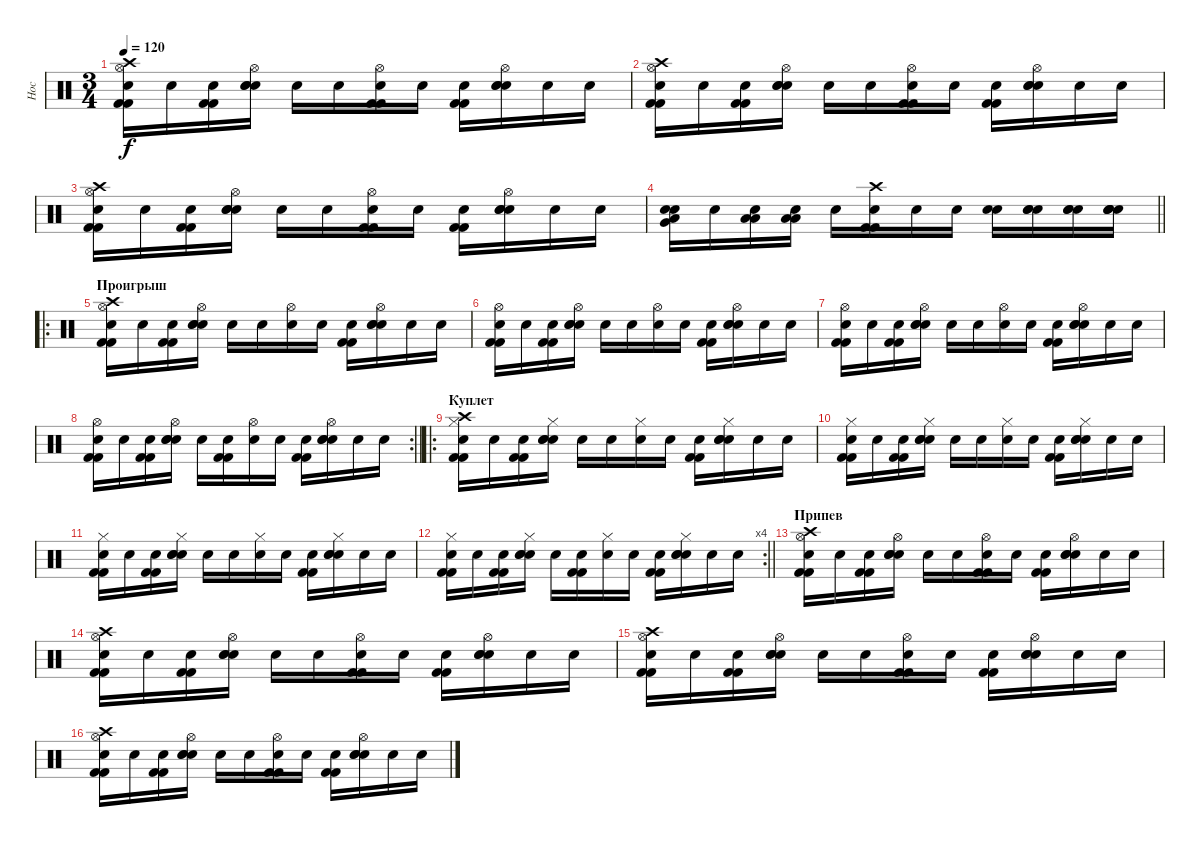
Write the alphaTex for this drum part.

\track ("Нос" "Нос") {instrument percussion}
\staff {score}
\articulation defaults
\ts (3 4)
\tempo 120
\clef neutral
\ks c
("Crash high (hit)" "Hi-Hat (open)" "Kick (hit) 2" "Kick (hit) 2" "Snare (hit)").16{dy f} "Snare (hit)".16 ("Kick (hit) 2" "Kick (hit) 2" "Snare (hit)").16 ("Hi-Hat (open)" "Snare (hit) 2" "Snare (hit) 2" "Snare (hit)").16 "Snare (hit)".16 "Snare (hit)".16 ("Hi-Hat (open)" "Kick (hit) 2" "Kick (hit) 2" "Snare (hit)").16 "Snare (hit)".16 ("Kick (hit) 2" "Kick (hit) 2" "Snare (hit)").16 ("Hi-Hat (open)" "Snare (hit) 2" "Snare (hit) 2" "Snare (hit)").16 "Snare (hit)".16 "Snare (hit)".16 |
("Crash high (hit)" "Hi-Hat (open)" "Kick (hit) 2" "Kick (hit) 2" "Snare (hit)").16 "Snare (hit)".16 ("Kick (hit) 2" "Kick (hit) 2" "Snare (hit)").16 ("Hi-Hat (open)" "Snare (hit) 2" "Snare (hit) 2" "Snare (hit)").16 "Snare (hit)".16 "Snare (hit)".16 ("Hi-Hat (open)" "Kick (hit) 2" "Kick (hit) 2" "Snare (hit)").16 "Snare (hit)".16 ("Kick (hit) 2" "Kick (hit) 2" "Snare (hit)").16 ("Hi-Hat (open)" "Snare (hit) 2" "Snare (hit) 2" "Snare (hit)").16 "Snare (hit)".16 "Snare (hit)".16 |
("Crash high (hit)" "Hi-Hat (open)" "Kick (hit) 2" "Kick (hit) 2" "Snare (hit)").16 "Snare (hit)".16 ("Kick (hit) 2" "Kick (hit) 2" "Snare (hit)").16 ("Hi-Hat (open)" "Snare (hit) 2" "Snare (hit) 2" "Snare (hit)").16 "Snare (hit)".16 "Snare (hit)".16 ("Hi-Hat (open)" "Kick (hit) 2" "Kick (hit) 2" "Snare (hit)").16 "Snare (hit)".16 ("Kick (hit) 2" "Kick (hit) 2" "Snare (hit)").16 ("Hi-Hat (open)" "Snare (hit) 2" "Snare (hit) 2" "Snare (hit)").16 "Snare (hit)".16 "Snare (hit)".16 |
\barLineRight lightlight
("Very Low Tom (hit)" "Snare (hit) 2" "Low Tom (hit)" "Snare (hit)").16 "Snare (hit)".16 ("Low Tom (hit)" "Low Tom (hit)" "Snare (hit)").16 ("Low Floor Tom (hit)" "Low Floor Tom (hit)" "Snare (hit)").16 "Snare (hit)".16 ("Crash high (hit)" "Kick (hit) 2" "Kick (hit) 2" "Snare (hit)").16 "Snare (hit)".16 "Snare (hit)".16 ("Snare (hit) 2" "Snare (hit)").16 ("Snare (hit) 2" "Snare (hit) 2" "Snare (hit)").16 ("Snare (hit) 2" "Snare (hit) 2" "Snare (hit)").16 ("Snare (hit) 2" "Snare (hit) 2" "Snare (hit) 2" "Snare (hit)").16 |
\ro
\section ("" "Проигрыш")
("Crash high (hit)" "Hi-Hat (open)" "Kick (hit) 2" "Kick (hit) 2" "Snare (hit)").16 "Snare (hit)".16 ("Kick (hit) 2" "Kick (hit) 2" "Snare (hit)").16 ("Hi-Hat (open)" "Snare (hit) 2" "Snare (hit) 2" "Snare (hit)").16 "Snare (hit)".16 "Snare (hit)".16 ("Hi-Hat (open)" "Snare (hit)").16 "Snare (hit)".16 ("Kick (hit) 2" "Kick (hit) 2" "Snare (hit)").16 ("Hi-Hat (open)" "Snare (hit) 2" "Snare (hit) 2" "Snare (hit)").16 "Snare (hit)".16 "Snare (hit)".16 |
("Hi-Hat (open)" "Kick (hit) 2" "Kick (hit) 2" "Snare (hit)").16 "Snare (hit)".16 ("Kick (hit) 2" "Kick (hit) 2" "Snare (hit)").16 ("Hi-Hat (open)" "Snare (hit) 2" "Snare (hit) 2" "Snare (hit)").16 "Snare (hit)".16 "Snare (hit)".16 ("Hi-Hat (open)" "Snare (hit)").16 "Snare (hit)".16 ("Kick (hit) 2" "Kick (hit) 2" "Snare (hit)").16 ("Hi-Hat (open)" "Snare (hit) 2" "Snare (hit) 2" "Snare (hit)").16 "Snare (hit)".16 "Snare (hit)".16 |
("Hi-Hat (open)" "Kick (hit) 2" "Kick (hit) 2" "Snare (hit)").16 "Snare (hit)".16 ("Kick (hit) 2" "Kick (hit) 2" "Snare (hit)").16 ("Hi-Hat (open)" "Snare (hit) 2" "Snare (hit) 2" "Snare (hit)").16 "Snare (hit)".16 "Snare (hit)".16 ("Hi-Hat (open)" "Snare (hit)").16 "Snare (hit)".16 ("Kick (hit) 2" "Kick (hit) 2" "Snare (hit)").16 ("Hi-Hat (open)" "Snare (hit) 2" "Snare (hit) 2" "Snare (hit)").16 "Snare (hit)".16 "Snare (hit)".16 |
\rc 2
\barLineRight lightlight
("Hi-Hat (open)" "Kick (hit) 2" "Kick (hit) 2" "Snare (hit)").16 "Snare (hit)".16 ("Kick (hit) 2" "Kick (hit) 2" "Snare (hit)").16 ("Hi-Hat (open)" "Snare (hit) 2" "Snare (hit) 2" "Snare (hit)").16 "Snare (hit)".16 ("Kick (hit) 2" "Kick (hit) 2" "Snare (hit)").16 ("Hi-Hat (open)" "Snare (hit)").16 "Snare (hit)".16 ("Kick (hit) 2" "Kick (hit) 2" "Snare (hit)").16 ("Hi-Hat (open)" "Snare (hit) 2" "Snare (hit) 2" "Snare (hit)").16 "Snare (hit)".16 "Snare (hit)".16 |
\ro
\section ("" "Куплет")
("Crash high (hit)" "Hi-Hat (closed)" "Kick (hit) 2" "Kick (hit) 2" "Snare (hit)").16 "Snare (hit)".16 ("Kick (hit) 2" "Kick (hit) 2" "Snare (hit)").16 ("Hi-Hat (closed)" "Snare (hit) 2" "Snare (hit) 2" "Snare (hit)").16 "Snare (hit)".16 "Snare (hit)".16 ("Hi-Hat (closed)" "Snare (hit)").16 "Snare (hit)".16 ("Kick (hit) 2" "Kick (hit) 2" "Snare (hit)").16 ("Hi-Hat (closed)" "Snare (hit) 2" "Snare (hit) 2" "Snare (hit)").16 "Snare (hit)".16 "Snare (hit)".16 |
("Hi-Hat (closed)" "Kick (hit) 2" "Kick (hit) 2" "Snare (hit)").16 "Snare (hit)".16 ("Kick (hit) 2" "Kick (hit) 2" "Snare (hit)").16 ("Hi-Hat (closed)" "Snare (hit) 2" "Snare (hit) 2" "Snare (hit)").16 "Snare (hit)".16 "Snare (hit)".16 ("Hi-Hat (closed)" "Snare (hit)").16 "Snare (hit)".16 ("Kick (hit) 2" "Kick (hit) 2" "Snare (hit)").16 ("Hi-Hat (closed)" "Snare (hit) 2" "Snare (hit) 2" "Snare (hit)").16 "Snare (hit)".16 "Snare (hit)".16 |
("Hi-Hat (closed)" "Kick (hit) 2" "Kick (hit) 2" "Snare (hit)").16 "Snare (hit)".16 ("Kick (hit) 2" "Kick (hit) 2" "Snare (hit)").16 ("Hi-Hat (closed)" "Snare (hit) 2" "Snare (hit) 2" "Snare (hit)").16 "Snare (hit)".16 "Snare (hit)".16 ("Hi-Hat (closed)" "Snare (hit)").16 "Snare (hit)".16 ("Kick (hit) 2" "Kick (hit) 2" "Snare (hit)").16 ("Hi-Hat (closed)" "Snare (hit) 2" "Snare (hit) 2" "Snare (hit)").16 "Snare (hit)".16 "Snare (hit)".16 |
\rc 4
\barLineRight lightlight
("Hi-Hat (closed)" "Kick (hit) 2" "Kick (hit) 2" "Snare (hit)").16 "Snare (hit)".16 ("Kick (hit) 2" "Kick (hit) 2" "Snare (hit)").16 ("Hi-Hat (closed)" "Snare (hit) 2" "Snare (hit) 2" "Snare (hit)").16 "Snare (hit)".16 ("Kick (hit) 2" "Kick (hit) 2" "Snare (hit)").16 ("Hi-Hat (closed)" "Snare (hit)").16 "Snare (hit)".16 ("Kick (hit) 2" "Kick (hit) 2" "Snare (hit)").16 ("Hi-Hat (closed)" "Snare (hit) 2" "Snare (hit) 2" "Snare (hit)").16 "Snare (hit)".16 "Snare (hit)".16 |
\section ("" "Припев")
("Crash high (hit)" "Hi-Hat (open)" "Kick (hit) 2" "Kick (hit) 2" "Snare (hit)").16 "Snare (hit)".16 ("Kick (hit) 2" "Kick (hit) 2" "Snare (hit)").16 ("Hi-Hat (open)" "Snare (hit) 2" "Snare (hit) 2" "Snare (hit)").16 "Snare (hit)".16 "Snare (hit)".16 ("Hi-Hat (open)" "Kick (hit) 2" "Kick (hit) 2" "Snare (hit)").16 "Snare (hit)".16 ("Kick (hit) 2" "Kick (hit) 2" "Snare (hit)").16 ("Hi-Hat (open)" "Snare (hit) 2" "Snare (hit) 2" "Snare (hit)").16 "Snare (hit)".16 "Snare (hit)".16 |
("Crash high (hit)" "Hi-Hat (open)" "Kick (hit) 2" "Kick (hit) 2" "Snare (hit)").16 "Snare (hit)".16 ("Kick (hit) 2" "Kick (hit) 2" "Snare (hit)").16 ("Hi-Hat (open)" "Snare (hit) 2" "Snare (hit) 2" "Snare (hit)").16 "Snare (hit)".16 "Snare (hit)".16 ("Hi-Hat (open)" "Kick (hit) 2" "Kick (hit) 2" "Snare (hit)").16 "Snare (hit)".16 ("Kick (hit) 2" "Kick (hit) 2" "Snare (hit)").16 ("Hi-Hat (open)" "Snare (hit) 2" "Snare (hit) 2" "Snare (hit)").16 "Snare (hit)".16 "Snare (hit)".16 |
("Crash high (hit)" "Hi-Hat (open)" "Kick (hit) 2" "Kick (hit) 2" "Snare (hit)").16 "Snare (hit)".16 ("Kick (hit) 2" "Kick (hit) 2" "Snare (hit)").16 ("Hi-Hat (open)" "Snare (hit) 2" "Snare (hit) 2" "Snare (hit)").16 "Snare (hit)".16 "Snare (hit)".16 ("Hi-Hat (open)" "Kick (hit) 2" "Kick (hit) 2" "Snare (hit)").16 "Snare (hit)".16 ("Kick (hit) 2" "Kick (hit) 2" "Snare (hit)").16 ("Hi-Hat (open)" "Snare (hit) 2" "Snare (hit) 2" "Snare (hit)").16 "Snare (hit)".16 "Snare (hit)".16 |
("Crash high (hit)" "Hi-Hat (open)" "Kick (hit) 2" "Kick (hit) 2" "Snare (hit)").16 "Snare (hit)".16 ("Kick (hit) 2" "Kick (hit) 2" "Snare (hit)").16 ("Hi-Hat (open)" "Snare (hit) 2" "Snare (hit) 2" "Snare (hit)").16 "Snare (hit)".16 "Snare (hit)".16 ("Hi-Hat (open)" "Kick (hit) 2" "Kick (hit) 2" "Snare (hit)").16 "Snare (hit)".16 ("Kick (hit) 2" "Kick (hit) 2" "Snare (hit)").16 ("Hi-Hat (open)" "Snare (hit) 2" "Snare (hit) 2" "Snare (hit)").16 "Snare (hit)".16 "Snare (hit)".16
